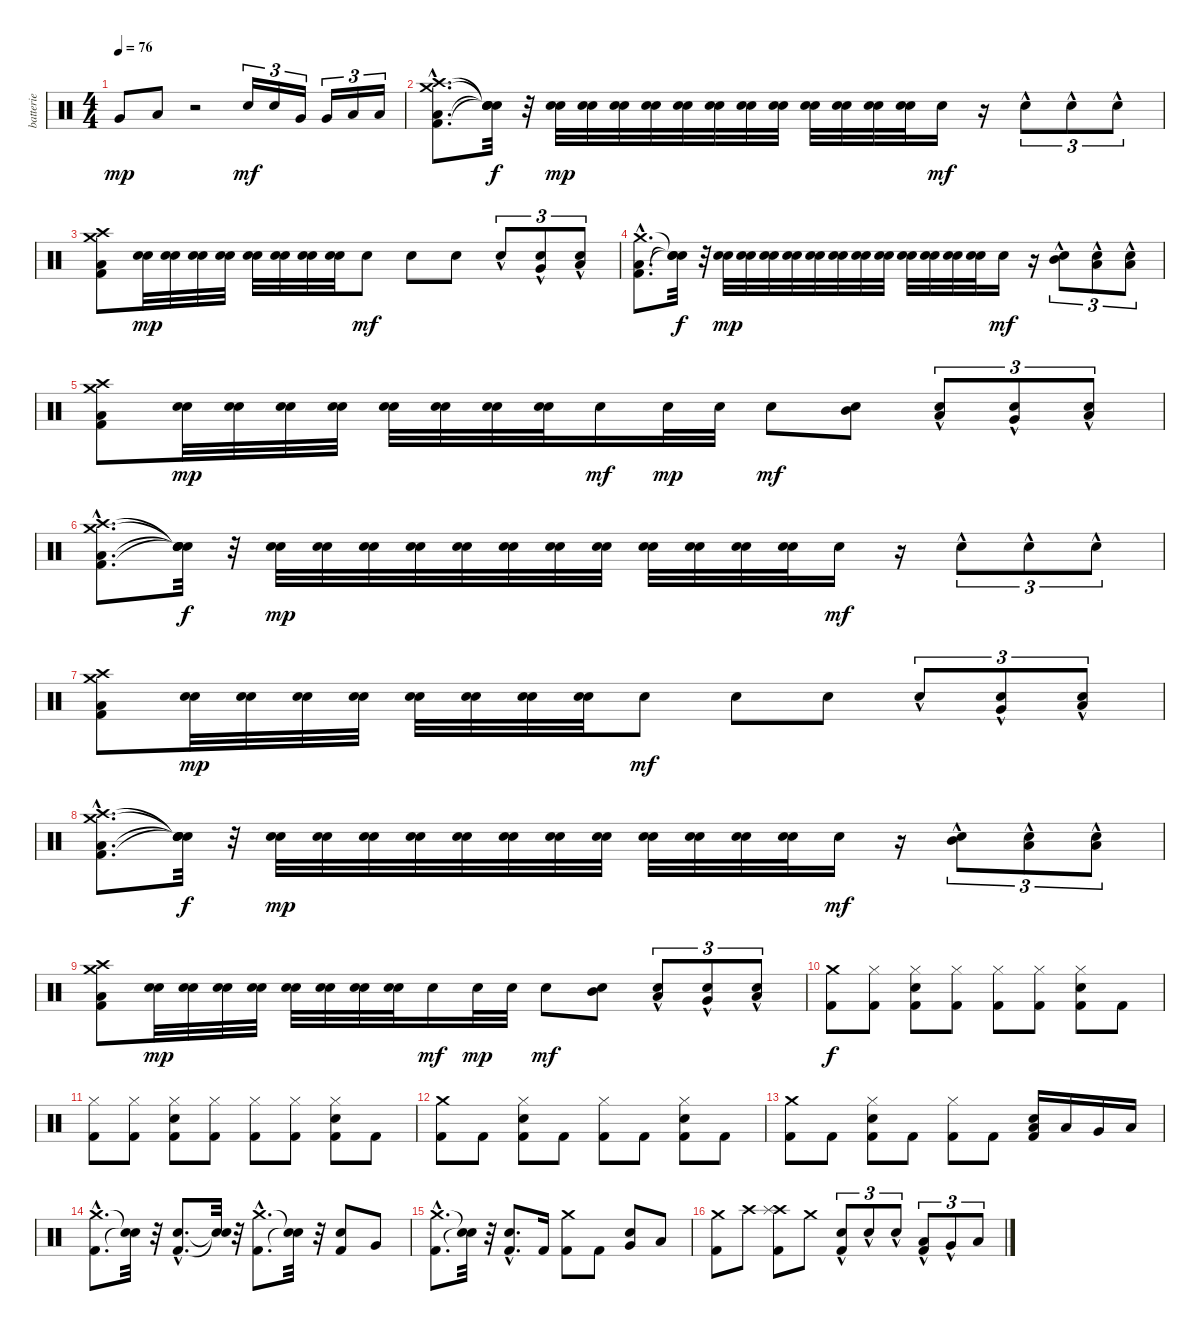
\track ("batterie" "batterie") {instrument percussion}
\staff {score}
\articulation defaults
\ts (4 4)
\tempo 76
\clef neutral
\ks c "Very Low Tom (hit)".8{dy mp} "Low Floor Tom (hit)".8
r.2 "Electric Snare (hit)".16{tu (3 2) dy mf} "Electric Snare (hit)".16{tu (3 2)} "Very Low Tom (hit)".16{tu (3 2)} "Very Low Tom (hit)".16{tu (3 2)} "Low Floor Tom (hit)".16{tu (3 2)} "Low Floor Tom (hit)".16{tu (3 2)} |
("Kick (hit) 2"{hac} "Low Floor Tom (hit)"{hac} "Crash high (hit)"{hac} "Crash medium (hit)"{hac}).8{d} ("Snare (hit)"{t} "Snare (hit)"{t} "Snare (hit)"{t} "Snare (hit)"{t}).32{dy f} r.32 ("Electric Snare (hit)" "Electric Snare (hit)").32{dy mp} ("Electric Snare (hit)" "Electric Snare (hit)").32 ("Electric Snare (hit)" "Electric Snare (hit)").32 ("Electric Snare (hit)" "Electric Snare (hit)").32 ("Electric Snare (hit)" "Electric Snare (hit)").32 ("Electric Snare (hit)" "Electric Snare (hit)").32 ("Electric Snare (hit)" "Electric Snare (hit)").32 ("Electric Snare (hit)" "Electric Snare (hit)").32 ("Electric Snare (hit)" "Electric Snare (hit)").32 ("Electric Snare (hit)" "Electric Snare (hit)").32 ("Electric Snare (hit)" "Electric Snare (hit)").32 ("Electric Snare (hit)" "Electric Snare (hit)").32 "Electric Snare (hit)".16{dy mf} r.16 "Electric Snare (hit)"{hac}.8{tu (3 2)} "Electric Snare (hit)"{hac}.8{tu (3 2)} "Electric Snare (hit)"{hac}.8{tu (3 2)} |
("Kick (hit) 2" "Low Floor Tom (hit)" "Crash high (hit)" "Crash medium (hit)").8 ("Electric Snare (hit)" "Electric Snare (hit)").32{dy mp} ("Electric Snare (hit)" "Electric Snare (hit)").32 ("Electric Snare (hit)" "Electric Snare (hit)").32 ("Electric Snare (hit)" "Electric Snare (hit)").32 ("Electric Snare (hit)" "Electric Snare (hit)").32 ("Electric Snare (hit)" "Electric Snare (hit)").32 ("Electric Snare (hit)" "Electric Snare (hit)").32 ("Electric Snare (hit)" "Electric Snare (hit)").32 "Electric Snare (hit)".8{dy mf} "Electric Snare (hit)".8 "Electric Snare (hit)".8 "Electric Snare (hit)"{hac}.8{tu (3 2)} ("Electric Snare (hit)"{hac} "Very Low Tom (hit)"{hac}).8{tu (3 2)} ("Electric Snare (hit)"{hac} "Low Floor Tom (hit)"{hac}).8{tu (3 2)} |
("Kick (hit) 2"{hac} "Low Floor Tom (hit)"{hac} "Crash medium (hit)"{hac}).8{d} ("Snare (hit)"{t} "Snare (hit)"{t} "Snare (hit)"{t}).32{dy f} r.32 ("Electric Snare (hit)" "Electric Snare (hit)").32{dy mp} ("Electric Snare (hit)" "Electric Snare (hit)").32 ("Electric Snare (hit)" "Electric Snare (hit)").32 ("Electric Snare (hit)" "Electric Snare (hit)").32 ("Electric Snare (hit)" "Electric Snare (hit)").32 ("Electric Snare (hit)" "Electric Snare (hit)").32 ("Electric Snare (hit)" "Electric Snare (hit)").32 ("Electric Snare (hit)" "Electric Snare (hit)").32 ("Electric Snare (hit)" "Electric Snare (hit)").32 ("Electric Snare (hit)" "Electric Snare (hit)").32 ("Electric Snare (hit)" "Electric Snare (hit)").32 ("Electric Snare (hit)" "Electric Snare (hit)").32 "Electric Snare (hit)".16{dy mf} r.16 ("Electric Snare (hit)"{hac} "Mid Tom (hit)"{hac}).8{tu (3 2)} ("Electric Snare (hit)"{hac} "Low Floor Tom (hit)"{hac}).8{tu (3 2)} ("Electric Snare (hit)"{hac} "Low Tom (hit)"{hac}).8{tu (3 2)} |
("Kick (hit) 2" "Low Floor Tom (hit)" "Crash high (hit)" "Crash medium (hit)").8 ("Electric Snare (hit)" "Electric Snare (hit)").32{dy mp} ("Electric Snare (hit)" "Electric Snare (hit)").32 ("Electric Snare (hit)" "Electric Snare (hit)").32 ("Electric Snare (hit)" "Electric Snare (hit)").32 ("Electric Snare (hit)" "Electric Snare (hit)").32 ("Electric Snare (hit)" "Electric Snare (hit)").32 ("Electric Snare (hit)" "Electric Snare (hit)").32 ("Electric Snare (hit)" "Electric Snare (hit)").32 "Electric Snare (hit)".16{dy mf} "Electric Snare (hit)".32{dy mp} "Electric Snare (hit)".32 "Electric Snare (hit)".8{dy mf} ("Electric Snare (hit)" "Mid Tom (hit)").8 ("Electric Snare (hit)"{hac} "Low Tom (hit)"{hac}).8{tu (3 2)} ("Electric Snare (hit)"{hac} "Very Low Tom (hit)"{hac}).8{tu (3 2)} ("Electric Snare (hit)"{hac} "Low Floor Tom (hit)"{hac}).8{tu (3 2)} |
("Kick (hit) 2"{hac} "Low Floor Tom (hit)"{hac} "Crash high (hit)"{hac} "Crash medium (hit)"{hac}).8{d} ("Snare (hit)"{t} "Snare (hit)"{t} "Snare (hit)"{t} "Snare (hit)"{t}).32{dy f} r.32 ("Electric Snare (hit)" "Electric Snare (hit)").32{dy mp} ("Electric Snare (hit)" "Electric Snare (hit)").32 ("Electric Snare (hit)" "Electric Snare (hit)").32 ("Electric Snare (hit)" "Electric Snare (hit)").32 ("Electric Snare (hit)" "Electric Snare (hit)").32 ("Electric Snare (hit)" "Electric Snare (hit)").32 ("Electric Snare (hit)" "Electric Snare (hit)").32 ("Electric Snare (hit)" "Electric Snare (hit)").32 ("Electric Snare (hit)" "Electric Snare (hit)").32 ("Electric Snare (hit)" "Electric Snare (hit)").32 ("Electric Snare (hit)" "Electric Snare (hit)").32 ("Electric Snare (hit)" "Electric Snare (hit)").32 "Electric Snare (hit)".16{dy mf} r.16 "Electric Snare (hit)"{hac}.8{tu (3 2)} "Electric Snare (hit)"{hac}.8{tu (3 2)} "Electric Snare (hit)"{hac}.8{tu (3 2)} |
("Kick (hit) 2" "Low Floor Tom (hit)" "Crash high (hit)" "Crash medium (hit)").8 ("Electric Snare (hit)" "Electric Snare (hit)").32{dy mp} ("Electric Snare (hit)" "Electric Snare (hit)").32 ("Electric Snare (hit)" "Electric Snare (hit)").32 ("Electric Snare (hit)" "Electric Snare (hit)").32 ("Electric Snare (hit)" "Electric Snare (hit)").32 ("Electric Snare (hit)" "Electric Snare (hit)").32 ("Electric Snare (hit)" "Electric Snare (hit)").32 ("Electric Snare (hit)" "Electric Snare (hit)").32 "Electric Snare (hit)".8{dy mf} "Electric Snare (hit)".8 "Electric Snare (hit)".8 "Electric Snare (hit)"{hac}.8{tu (3 2)} ("Electric Snare (hit)"{hac} "Very Low Tom (hit)"{hac}).8{tu (3 2)} ("Electric Snare (hit)"{hac} "Low Floor Tom (hit)"{hac}).8{tu (3 2)} |
("Kick (hit) 2"{hac} "Low Floor Tom (hit)"{hac} "Crash high (hit)"{hac} "Crash medium (hit)"{hac}).8{d} ("Snare (hit)"{t} "Snare (hit)"{t} "Snare (hit)"{t} "Snare (hit)"{t}).32{dy f} r.32 ("Electric Snare (hit)" "Electric Snare (hit)").32{dy mp} ("Electric Snare (hit)" "Electric Snare (hit)").32 ("Electric Snare (hit)" "Electric Snare (hit)").32 ("Electric Snare (hit)" "Electric Snare (hit)").32 ("Electric Snare (hit)" "Electric Snare (hit)").32 ("Electric Snare (hit)" "Electric Snare (hit)").32 ("Electric Snare (hit)" "Electric Snare (hit)").32 ("Electric Snare (hit)" "Electric Snare (hit)").32 ("Electric Snare (hit)" "Electric Snare (hit)").32 ("Electric Snare (hit)" "Electric Snare (hit)").32 ("Electric Snare (hit)" "Electric Snare (hit)").32 ("Electric Snare (hit)" "Electric Snare (hit)").32 "Electric Snare (hit)".16{dy mf} r.16 ("Electric Snare (hit)"{hac} "Mid Tom (hit)"{hac}).8{tu (3 2)} ("Electric Snare (hit)"{hac} "Low Floor Tom (hit)"{hac}).8{tu (3 2)} ("Electric Snare (hit)"{hac} "Low Tom (hit)"{hac}).8{tu (3 2)} |
("Kick (hit) 2" "Low Floor Tom (hit)" "Crash high (hit)" "Crash medium (hit)").8 ("Electric Snare (hit)" "Electric Snare (hit)").32{dy mp} ("Electric Snare (hit)" "Electric Snare (hit)").32 ("Electric Snare (hit)" "Electric Snare (hit)").32 ("Electric Snare (hit)" "Electric Snare (hit)").32 ("Electric Snare (hit)" "Electric Snare (hit)").32 ("Electric Snare (hit)" "Electric Snare (hit)").32 ("Electric Snare (hit)" "Electric Snare (hit)").32 ("Electric Snare (hit)" "Electric Snare (hit)").32 "Electric Snare (hit)".16{dy mf} "Electric Snare (hit)".32{dy mp} "Electric Snare (hit)".32 "Electric Snare (hit)".8{dy mf} ("Electric Snare (hit)" "Mid Tom (hit)").8 ("Electric Snare (hit)"{hac} "Low Tom (hit)"{hac}).8{tu (3 2)} ("Electric Snare (hit)"{hac} "Very Low Tom (hit)"{hac}).8{tu (3 2)} ("Electric Snare (hit)"{hac} "Low Floor Tom (hit)"{hac}).8{tu (3 2)} |
("Kick (hit) 2" "Crash medium (hit)").8{dy f} ("Kick (hit) 2" "Hi-Hat (closed)").8 ("Kick (hit) 2" "Electric Snare (hit)" "Hi-Hat (closed)").8 ("Kick (hit) 2" "Hi-Hat (closed)").8 ("Kick (hit) 2" "Hi-Hat (closed)").8 ("Kick (hit) 2" "Hi-Hat (closed)").8 ("Kick (hit) 2" "Electric Snare (hit)" "Hi-Hat (closed)").8 "Kick (hit) 2".8 |
("Kick (hit) 2" "Hi-Hat (closed)").8 ("Kick (hit) 2" "Hi-Hat (closed)").8 ("Kick (hit) 2" "Electric Snare (hit)" "Hi-Hat (closed)").8 ("Kick (hit) 2" "Hi-Hat (closed)").8 ("Kick (hit) 2" "Hi-Hat (closed)").8 ("Kick (hit) 2" "Hi-Hat (closed)").8 ("Kick (hit) 2" "Electric Snare (hit)" "Hi-Hat (closed)").8 "Kick (hit) 2".8 |
("Kick (hit) 2" "Crash medium (hit)").8 "Kick (hit) 2".8 ("Kick (hit) 2" "Electric Snare (hit)" "Hi-Hat (closed)").8 "Kick (hit) 2".8 ("Kick (hit) 2" "Hi-Hat (closed)").8 "Kick (hit) 2".8 ("Kick (hit) 2" "Electric Snare (hit)" "Hi-Hat (closed)").8 "Kick (hit) 2".8 |
("Kick (hit) 2" "Crash medium (hit)").8 "Kick (hit) 2".8 ("Kick (hit) 2" "Electric Snare (hit)" "Hi-Hat (closed)").8 "Kick (hit) 2".8 ("Kick (hit) 2" "Hi-Hat (closed)").8 "Kick (hit) 2".8 ("Kick (hit) 2" "Electric Snare (hit)" "Low Tom (hit)").16 "Low Tom (hit)".16 "Very Low Tom (hit)".16 "Low Floor Tom (hit)".16 |
("Kick (hit) 2"{hac} "Crash medium (hit)"{hac}).8{d} ("Snare (hit)"{t} "Snare (hit)"{t}).32 r.32 ("Kick (hit) 2"{hac} "Electric Snare (hit)"{hac}).8{d} ("Snare (hit)"{t} "Snare (hit)"{t}).32 r.32 ("Kick (hit) 2"{hac} "Crash medium (hit)"{hac}).8{d} ("Snare (hit)"{t} "Snare (hit)"{t}).32 r.32 ("Kick (hit) 2" "Electric Snare (hit)").8 "Very Low Tom (hit)".8 |
("Kick (hit) 2"{hac} "Crash medium (hit)"{hac}).8{d} ("Snare (hit)"{t} "Snare (hit)"{t}).32 r.32 ("Kick (hit) 2"{hac} "Electric Snare (hit)"{hac}).8{d} "Kick (hit) 2".16 ("Kick (hit) 2" "Crash medium (hit)").8 "Kick (hit) 2".8 ("Electric Snare (hit)" "Very Low Tom (hit)").8 "Low Floor Tom (hit)".8 |
("Kick (hit) 2" "Crash medium (hit)").8 "Crash high (hit)".8 ("Kick (hit) 2" "Crash high (hit)" "Splash (hit)").8 "Crash medium (hit)".8 ("Kick (hit) 2"{hac} "Electric Snare (hit)"{hac}).8{tu (3 2)} "Electric Snare (hit)"{hac}.8{tu (3 2)} "Electric Snare (hit)"{hac}.8{tu (3 2)} ("Kick (hit) 2"{hac} "Low Tom (hit)"{hac}).8{tu (3 2)} "Very Low Tom (hit)"{hac}.8{tu (3 2)} "Low Floor Tom (hit)".8{tu (3 2)}
